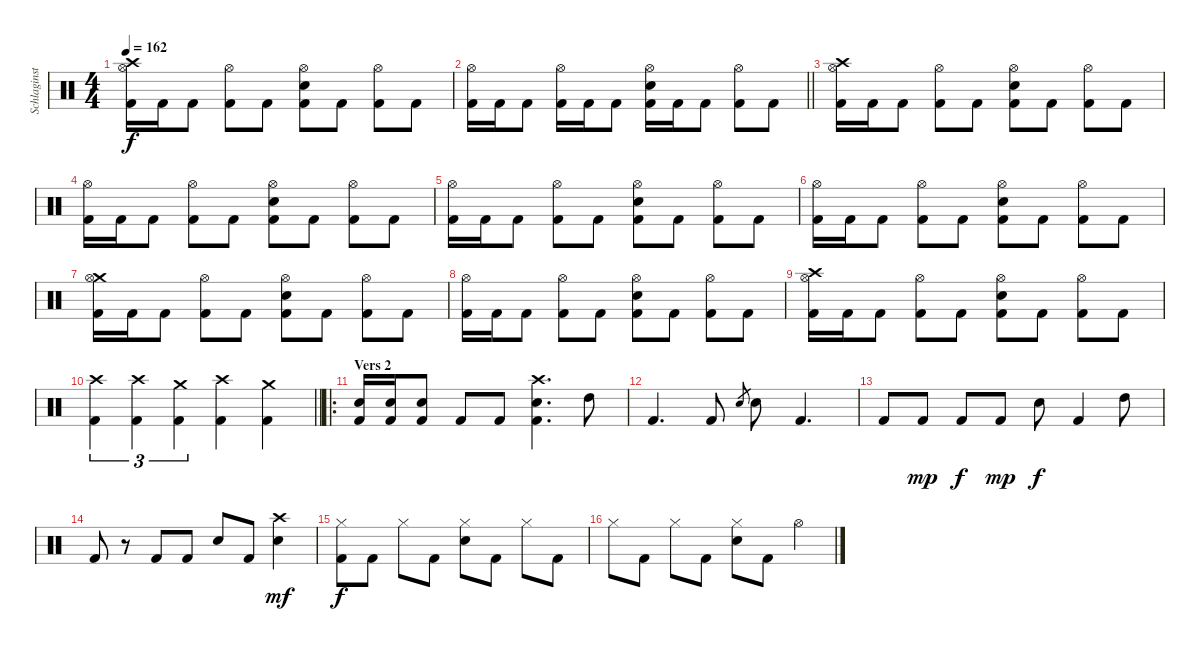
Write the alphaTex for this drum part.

\track ("Schlaginstrumente - Auswahl" "Schlaginst") {instrument percussion}
\staff {score}
\articulation defaults
\ts (4 4)
\tempo 162
\clef neutral
\ks c
("Crash high (hit)" "Hi-Hat (open)" "Kick (hit) 2").16{dy f} "Kick (hit) 2".16 "Kick (hit) 2".8 ("Hi-Hat (open)" "Kick (hit) 2").8 "Kick (hit) 2".8 ("Hi-Hat (open)" "Electric Snare (hit)" "Kick (hit) 2").8 "Kick (hit) 2".8 ("Hi-Hat (open)" "Kick (hit) 2").8 "Kick (hit) 2".8 |
\barLineRight lightlight
("Hi-Hat (open)" "Kick (hit) 2").16 "Kick (hit) 2".16 "Kick (hit) 2".8 ("Hi-Hat (open)" "Kick (hit) 2").16 "Kick (hit) 2".16 "Kick (hit) 2".8 ("Hi-Hat (open)" "Electric Snare (hit)" "Kick (hit) 2").16 "Kick (hit) 2".16 "Kick (hit) 2".8 ("Hi-Hat (open)" "Kick (hit) 2").8 "Kick (hit) 2".8 |
("Crash high (hit)" "Hi-Hat (open)" "Kick (hit) 2").16 "Kick (hit) 2".16 "Kick (hit) 2".8 ("Hi-Hat (open)" "Kick (hit) 2").8 "Kick (hit) 2".8 ("Hi-Hat (open)" "Electric Snare (hit)" "Kick (hit) 2").8 "Kick (hit) 2".8 ("Hi-Hat (open)" "Kick (hit) 2").8 "Kick (hit) 2".8 |
("Hi-Hat (open)" "Kick (hit) 2").16 "Kick (hit) 2".16 "Kick (hit) 2".8 ("Hi-Hat (open)" "Kick (hit) 2").8 "Kick (hit) 2".8 ("Hi-Hat (open)" "Electric Snare (hit)" "Kick (hit) 2").8 "Kick (hit) 2".8 ("Hi-Hat (open)" "Kick (hit) 2").8 "Kick (hit) 2".8 |
("Hi-Hat (open)" "Kick (hit) 2").16 "Kick (hit) 2".16 "Kick (hit) 2".8 ("Hi-Hat (open)" "Kick (hit) 2").8 "Kick (hit) 2".8 ("Hi-Hat (open)" "Electric Snare (hit)" "Kick (hit) 2").8 "Kick (hit) 2".8 ("Hi-Hat (open)" "Kick (hit) 2").8 "Kick (hit) 2".8 |
("Hi-Hat (open)" "Kick (hit) 2").16 "Kick (hit) 2".16 "Kick (hit) 2".8 ("Hi-Hat (open)" "Kick (hit) 2").8 "Kick (hit) 2".8 ("Hi-Hat (open)" "Electric Snare (hit)" "Kick (hit) 2").8 "Kick (hit) 2".8 ("Hi-Hat (open)" "Kick (hit) 2").8 "Kick (hit) 2".8 |
("Crash medium (hit)" "Hi-Hat (open)" "Kick (hit) 2").16 "Kick (hit) 2".16 "Kick (hit) 2".8 ("Hi-Hat (open)" "Kick (hit) 2").8 "Kick (hit) 2".8 ("Hi-Hat (open)" "Electric Snare (hit)" "Kick (hit) 2").8 "Kick (hit) 2".8 ("Hi-Hat (open)" "Kick (hit) 2").8 "Kick (hit) 2".8 |
("Hi-Hat (open)" "Kick (hit) 2").16 "Kick (hit) 2".16 "Kick (hit) 2".8 ("Hi-Hat (open)" "Kick (hit) 2").8 "Kick (hit) 2".8 ("Hi-Hat (open)" "Electric Snare (hit)" "Kick (hit) 2").8 "Kick (hit) 2".8 ("Hi-Hat (open)" "Kick (hit) 2").8 "Kick (hit) 2".8 |
("Crash high (hit)" "Hi-Hat (open)" "Kick (hit) 2").16 "Kick (hit) 2".16 "Kick (hit) 2".8 ("Hi-Hat (open)" "Kick (hit) 2").8 "Kick (hit) 2".8 ("Hi-Hat (open)" "Electric Snare (hit)" "Kick (hit) 2").8 "Kick (hit) 2".8 ("Hi-Hat (open)" "Kick (hit) 2").8 "Kick (hit) 2".8 |
\barLineRight lightlight
("Crash high (hit)" "Kick (hit) 2").4{tu (3 2)} ("Crash high (hit)" "Kick (hit) 2").4{tu (3 2)} ("Crash medium (hit)" "Kick (hit) 2").4{tu (3 2)} ("Crash high (hit)" "Kick (hit) 2").4 ("Crash medium (hit)" "Kick (hit) 2").4 |
\ro
\section ("" "Vers 2")
("Electric Snare (hit)" "Kick (hit) 2").16 ("Electric Snare (hit)" "Kick (hit) 2").16 ("Electric Snare (hit)" "Kick (hit) 2").8 "Kick (hit) 2".8 "Kick (hit) 2".8 ("Crash high (hit)" "Electric Snare (hit)" "Kick (hit) 2").4{d} "High Tom (hit)".8 |
"Kick (hit) 2".4{d} "Kick (hit) 2".8 "Electric Snare (hit)"{h}.8{gr} "Electric Snare (hit)".8 "Kick (hit) 2".4{d} |
"Kick (hit) 2".8 "Kick (hit) 2".8{dy mp} "Kick (hit) 2".8{dy f} "Kick (hit) 2".8{dy mp} "Electric Snare (hit)".8{dy f} "Kick (hit) 2".4 "High Tom (hit)".8 |
"Kick (hit) 2".8 r.8 "Kick (hit) 2".8 "Kick (hit) 2".8 "Electric Snare (hit)".8 "Kick (hit) 2".8 ("Crash high (hit)" "Electric Snare (hit)").4{dy mf} |
("Hi-Hat (closed)" "Kick (hit) 2").8{dy f} "Kick (hit) 2".8 "Hi-Hat (closed)".8 "Kick (hit) 2".8 ("Hi-Hat (closed)" "Electric Snare (hit)").8 "Kick (hit) 2".8 "Hi-Hat (closed)".8 "Kick (hit) 2".8 |
"Hi-Hat (closed)".8 "Kick (hit) 2".8 "Hi-Hat (closed)".8 "Kick (hit) 2".8 ("Hi-Hat (closed)" "Electric Snare (hit)").8 "Kick (hit) 2".8 "Hi-Hat (open)".4
